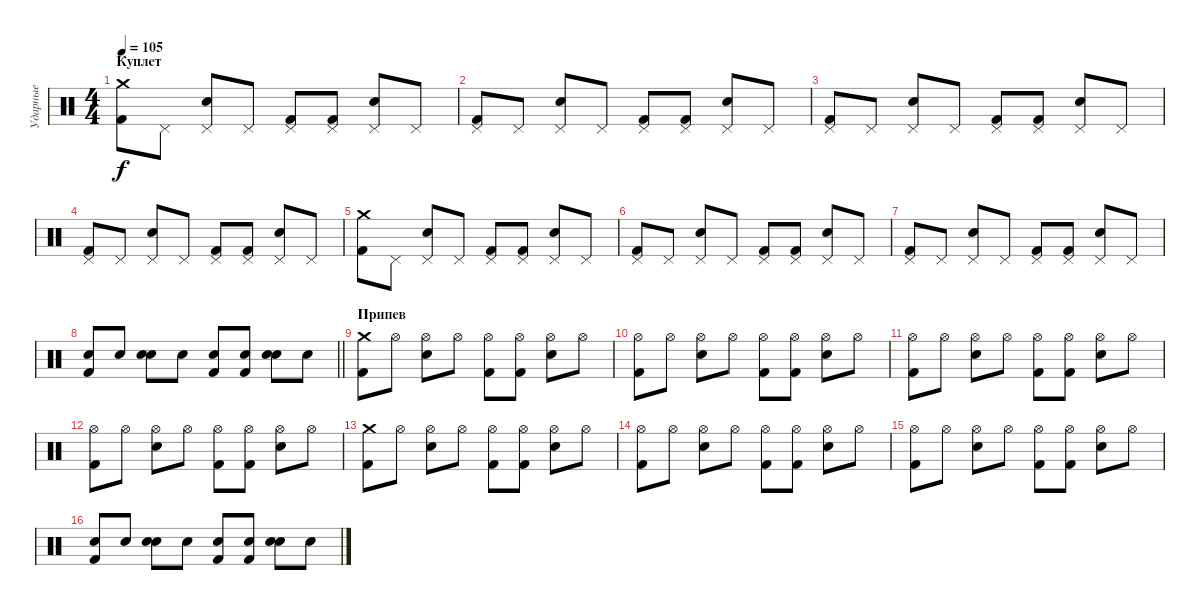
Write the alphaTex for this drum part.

\track ("Ударные" "Ударные") {instrument percussion}
\staff {score}
\articulation defaults
\ts (4 4)
\section ("" "Куплет")
\tempo 105
\clef neutral
\ks c
("Crash medium (hit)" "Kick (hit) 2").8{dy f} "Pedal Hi-Hat (hit)".8 ("Pedal Hi-Hat (hit)" "Snare (hit) 2").8 "Pedal Hi-Hat (hit)".8 ("Pedal Hi-Hat (hit)" "Kick (hit) 2").8 ("Pedal Hi-Hat (hit)" "Kick (hit) 2").8 ("Pedal Hi-Hat (hit)" "Snare (hit) 2").8 "Pedal Hi-Hat (hit)".8 |
("Pedal Hi-Hat (hit)" "Kick (hit) 2").8 "Pedal Hi-Hat (hit)".8 ("Pedal Hi-Hat (hit)" "Snare (hit) 2").8 "Pedal Hi-Hat (hit)".8 ("Pedal Hi-Hat (hit)" "Kick (hit) 2").8 ("Pedal Hi-Hat (hit)" "Kick (hit) 2").8 ("Pedal Hi-Hat (hit)" "Snare (hit) 2").8 "Pedal Hi-Hat (hit)".8 |
("Pedal Hi-Hat (hit)" "Kick (hit) 2").8 "Pedal Hi-Hat (hit)".8 ("Pedal Hi-Hat (hit)" "Snare (hit) 2").8 "Pedal Hi-Hat (hit)".8 ("Pedal Hi-Hat (hit)" "Kick (hit) 2").8 ("Pedal Hi-Hat (hit)" "Kick (hit) 2").8 ("Pedal Hi-Hat (hit)" "Snare (hit) 2").8 "Pedal Hi-Hat (hit)".8 |
("Pedal Hi-Hat (hit)" "Kick (hit) 2").8 "Pedal Hi-Hat (hit)".8 ("Pedal Hi-Hat (hit)" "Snare (hit) 2").8 "Pedal Hi-Hat (hit)".8 ("Pedal Hi-Hat (hit)" "Kick (hit) 2").8 ("Pedal Hi-Hat (hit)" "Kick (hit) 2").8 ("Pedal Hi-Hat (hit)" "Snare (hit) 2").8 "Pedal Hi-Hat (hit)".8 |
("Crash medium (hit)" "Kick (hit) 2").8 "Pedal Hi-Hat (hit)".8 ("Pedal Hi-Hat (hit)" "Snare (hit) 2").8 "Pedal Hi-Hat (hit)".8 ("Pedal Hi-Hat (hit)" "Kick (hit) 2").8 ("Pedal Hi-Hat (hit)" "Kick (hit) 2").8 ("Pedal Hi-Hat (hit)" "Snare (hit) 2").8 "Pedal Hi-Hat (hit)".8 |
("Pedal Hi-Hat (hit)" "Kick (hit) 2").8 "Pedal Hi-Hat (hit)".8 ("Pedal Hi-Hat (hit)" "Snare (hit) 2").8 "Pedal Hi-Hat (hit)".8 ("Pedal Hi-Hat (hit)" "Kick (hit) 2").8 ("Pedal Hi-Hat (hit)" "Kick (hit) 2").8 ("Pedal Hi-Hat (hit)" "Snare (hit) 2").8 "Pedal Hi-Hat (hit)".8 |
("Pedal Hi-Hat (hit)" "Kick (hit) 2").8 "Pedal Hi-Hat (hit)".8 ("Pedal Hi-Hat (hit)" "Snare (hit) 2").8 "Pedal Hi-Hat (hit)".8 ("Pedal Hi-Hat (hit)" "Kick (hit) 2").8 ("Pedal Hi-Hat (hit)" "Kick (hit) 2").8 ("Pedal Hi-Hat (hit)" "Snare (hit) 2").8 "Pedal Hi-Hat (hit)".8 |
\barLineRight lightlight
("Snare (hit) 2" "Kick (hit) 2").8 "Snare (hit) 2".8 ("Snare (hit) 2" "Snare (hit) 2").8 "Snare (hit) 2".8 ("Snare (hit) 2" "Kick (hit) 2").8 ("Snare (hit) 2" "Kick (hit) 2").8 ("Snare (hit) 2" "Snare (hit) 2").8 "Snare (hit) 2".8 |
\section ("" "Припев")
("Crash medium (hit)" "Kick (hit) 2").8 "Hi-Hat (open)".8 ("Hi-Hat (open)" "Snare (hit) 2").8 "Hi-Hat (open)".8 ("Hi-Hat (open)" "Kick (hit) 2").8 ("Hi-Hat (open)" "Kick (hit) 2").8 ("Hi-Hat (open)" "Snare (hit) 2").8 "Hi-Hat (open)".8 |
("Hi-Hat (open)" "Kick (hit) 2").8 "Hi-Hat (open)".8 ("Hi-Hat (open)" "Snare (hit) 2").8 "Hi-Hat (open)".8 ("Hi-Hat (open)" "Kick (hit) 2").8 ("Hi-Hat (open)" "Kick (hit) 2").8 ("Hi-Hat (open)" "Snare (hit) 2").8 "Hi-Hat (open)".8 |
("Hi-Hat (open)" "Kick (hit) 2").8 "Hi-Hat (open)".8 ("Hi-Hat (open)" "Snare (hit) 2").8 "Hi-Hat (open)".8 ("Hi-Hat (open)" "Kick (hit) 2").8 ("Hi-Hat (open)" "Kick (hit) 2").8 ("Hi-Hat (open)" "Snare (hit) 2").8 "Hi-Hat (open)".8 |
("Hi-Hat (open)" "Kick (hit) 2").8 "Hi-Hat (open)".8 ("Hi-Hat (open)" "Snare (hit) 2").8 "Hi-Hat (open)".8 ("Hi-Hat (open)" "Kick (hit) 2").8 ("Hi-Hat (open)" "Kick (hit) 2").8 ("Hi-Hat (open)" "Snare (hit) 2").8 "Hi-Hat (open)".8 |
("Crash medium (hit)" "Kick (hit) 2").8 "Hi-Hat (open)".8 ("Hi-Hat (open)" "Snare (hit) 2").8 "Hi-Hat (open)".8 ("Hi-Hat (open)" "Kick (hit) 2").8 ("Hi-Hat (open)" "Kick (hit) 2").8 ("Hi-Hat (open)" "Snare (hit) 2").8 "Hi-Hat (open)".8 |
("Hi-Hat (open)" "Kick (hit) 2").8 "Hi-Hat (open)".8 ("Hi-Hat (open)" "Snare (hit) 2").8 "Hi-Hat (open)".8 ("Hi-Hat (open)" "Kick (hit) 2").8 ("Hi-Hat (open)" "Kick (hit) 2").8 ("Hi-Hat (open)" "Snare (hit) 2").8 "Hi-Hat (open)".8 |
("Hi-Hat (open)" "Kick (hit) 2").8 "Hi-Hat (open)".8 ("Hi-Hat (open)" "Snare (hit) 2").8 "Hi-Hat (open)".8 ("Hi-Hat (open)" "Kick (hit) 2").8 ("Hi-Hat (open)" "Kick (hit) 2").8 ("Hi-Hat (open)" "Snare (hit) 2").8 "Hi-Hat (open)".8 |
("Snare (hit) 2" "Kick (hit) 2").8 "Snare (hit) 2".8 ("Snare (hit) 2" "Snare (hit) 2").8 "Snare (hit) 2".8 ("Snare (hit) 2" "Kick (hit) 2").8 ("Snare (hit) 2" "Kick (hit) 2").8 ("Snare (hit) 2" "Snare (hit) 2").8 "Snare (hit) 2".8
